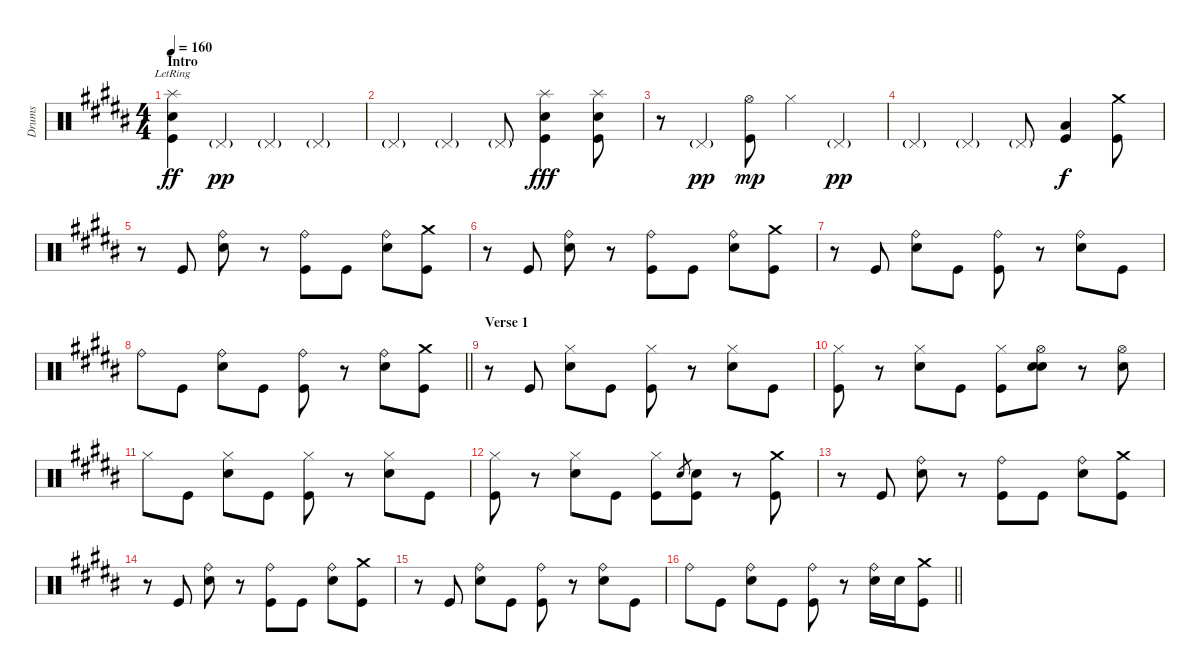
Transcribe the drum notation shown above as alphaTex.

\track ("Drums" "Drums") {instrument percussion}
\staff {score}
\articulation defaults
\ts (4 4)
\section ("" "Intro")
\tempo 160
\clef neutral
\ks b
("Splash (hit)"{lr} "Snare (hit) 2" "Kick (hit)").4{dy ff} "Pedal Hi-Hat (hit)"{g}.4{dy pp} "Pedal Hi-Hat (hit)"{g}.4 "Pedal Hi-Hat (hit)"{g}.4 |
"Pedal Hi-Hat (hit)"{g}.4 "Pedal Hi-Hat (hit)"{g}.4 "Pedal Hi-Hat (hit)"{g}.8 ("Splash (hit)" "Snare (hit) 2" "Kick (hit)").4{dy fff} ("Splash (hit)" "Snare (hit) 2" "Kick (hit)").8 |
r.8 "Pedal Hi-Hat (hit)"{g}.4{dy pp} ("Hi-Hat (open)" "Kick (hit)").8{dy mp} "Hi-Hat (closed)".4 "Pedal Hi-Hat (hit)"{g}.4{dy pp} |
"Pedal Hi-Hat (hit)"{g}.4 "Pedal Hi-Hat (hit)"{g}.4 "Pedal Hi-Hat (hit)"{g}.8 ("Low Floor Tom (hit)" "Kick (hit)").4{dy f} ("Crash medium (hit)" "Kick (hit)").8 |
r.8 "Kick (hit)".8 ("Ride (bell)" "Snare (hit) 2").8 r.8 ("Ride (bell)" "Kick (hit)").8 "Kick (hit)".8 ("Ride (bell)" "Snare (hit) 2").8 ("Crash medium (hit)" "Kick (hit)").8 |
r.8 "Kick (hit)".8 ("Ride (bell)" "Snare (hit) 2").8 r.8 ("Ride (bell)" "Kick (hit)").8 "Kick (hit)".8 ("Ride (bell)" "Snare (hit) 2").8 ("Crash medium (hit)" "Kick (hit)").8 |
r.8 "Kick (hit)".8 ("Ride (bell)" "Snare (hit) 2").8 "Kick (hit)".8 ("Ride (bell)" "Kick (hit)").8 r.8 ("Ride (bell)" "Snare (hit) 2").8 "Kick (hit)".8 |
\barLineRight lightlight "Ride (bell)".8 "Kick (hit)".8
("Ride (bell)" "Snare (hit) 2").8 "Kick (hit)".8 ("Ride (bell)" "Kick (hit)").8 r.8 ("Ride (bell)" "Snare (hit) 2").8 ("Crash medium (hit)" "Kick (hit)").8 |
\section ("" "Verse 1")
r.8 "Kick (hit)".8 ("Hi-Hat (closed)" "Snare (hit) 2").8 "Kick (hit)".8 ("Hi-Hat (closed)" "Kick (hit)").8 r.8 ("Hi-Hat (closed)" "Snare (hit) 2").8 "Kick (hit)".8 |
("Hi-Hat (closed)" "Kick (hit)").8 r.8 ("Hi-Hat (closed)" "Snare (hit) 2").8 "Kick (hit)".8 ("Hi-Hat (closed)" "Kick (hit)").8 ("Hi-Hat (open)" "Snare (hit) 2" "Electric Snare (hit)").8 r.8 ("Hi-Hat (open)" "Snare (hit) 2").8 |
"Hi-Hat (closed)".8 "Kick (hit)".8 ("Hi-Hat (closed)" "Snare (hit) 2").8 "Kick (hit)".8 ("Hi-Hat (closed)" "Kick (hit)").8 r.8 ("Hi-Hat (closed)" "Snare (hit) 2").8 "Kick (hit)".8 |
("Hi-Hat (closed)" "Kick (hit)").8 r.8 ("Hi-Hat (closed)" "Snare (hit) 2").8 "Kick (hit)".8 ("Hi-Hat (closed)" "Kick (hit)").8 "Snare (hit) 2".8{gr} ("Snare (hit) 2" "Kick (hit)").8 r.8 ("Crash medium (hit)" "Kick (hit)").8 |
r.8 "Kick (hit)".8 ("Ride (bell)" "Snare (hit) 2").8 r.8 ("Ride (bell)" "Kick (hit)").8 "Kick (hit)".8 ("Ride (bell)" "Snare (hit) 2").8 ("Crash medium (hit)" "Kick (hit)").8 |
r.8 "Kick (hit)".8 ("Ride (bell)" "Snare (hit) 2").8 r.8 ("Ride (bell)" "Kick (hit)").8 "Kick (hit)".8 ("Ride (bell)" "Snare (hit) 2").8 ("Crash medium (hit)" "Kick (hit)").8 |
r.8 "Kick (hit)".8 ("Ride (bell)" "Snare (hit) 2").8 "Kick (hit)".8 ("Ride (bell)" "Kick (hit)").8 r.8 ("Ride (bell)" "Snare (hit) 2").8 "Kick (hit)".8 |
\barLineRight lightlight "Ride (bell)".8 "Kick (hit)".8
("Ride (bell)" "Snare (hit) 2").8 "Kick (hit)".8 ("Ride (bell)" "Kick (hit)").8 r.8 ("Ride (bell)" "Snare (hit) 2").16 "Snare (hit) 2".16 ("Crash medium (hit)" "Kick (hit)").8
